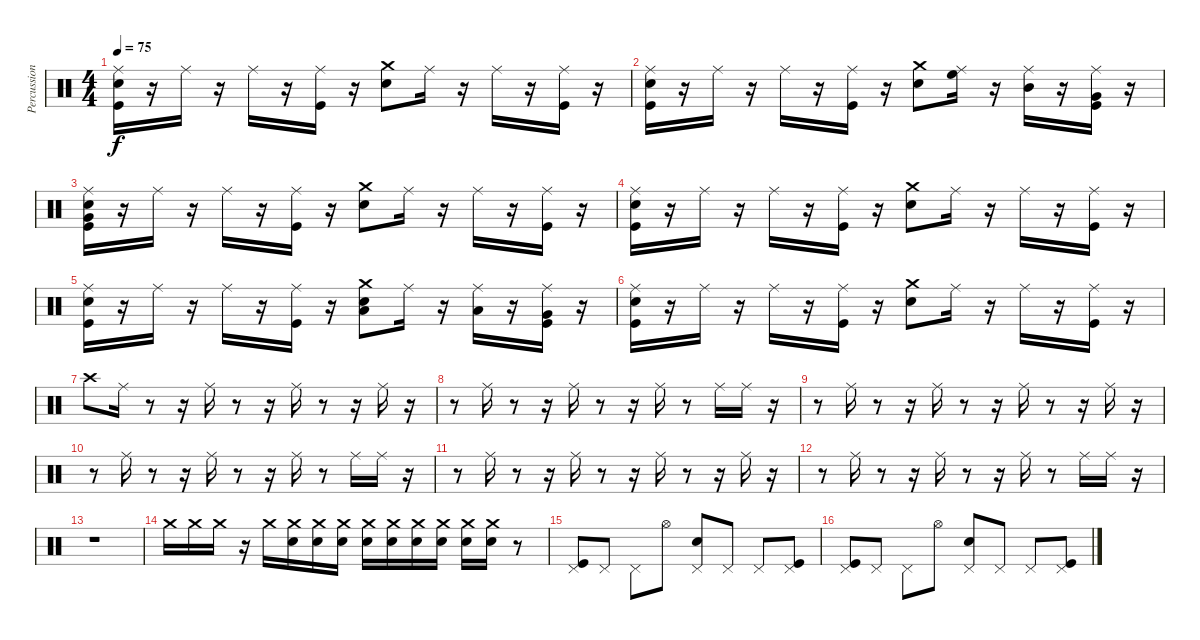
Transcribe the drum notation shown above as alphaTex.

\track ("Percussion" "Percussion") {instrument percussion}
\staff {score}
\articulation defaults
\ts (4 4)
\tempo 75
\clef neutral
\ks c
("Snare (hit) 2" "Ride (middle)" "Kick (hit)").16{dy f} r.16 "Ride (middle)".16 r.16 "Ride (middle)".16 r.16 ("Kick (hit)" "Ride (middle)").16 r.16 ("Snare (hit) 2" "Crash medium (hit)").8 "Ride (middle)".16 r.16 "Ride (middle)".16 r.16 ("Kick (hit)" "Ride (middle)").16 r.16 |
("Snare (hit) 2" "Ride (middle)" "Kick (hit)").16 r.16 "Ride (middle)".16 r.16 "Ride (middle)".16 r.16 ("Kick (hit)" "Ride (middle)").16 r.16 ("Snare (hit) 2" "Crash medium (hit)").8 ("High Floor Tom (hit)" "Ride (middle)").16 r.16 ("Mid Tom (hit)" "Ride (middle)").16 r.16 ("Very Low Tom (hit)" "Kick (hit)" "Ride (middle)").16 r.16 |
("Very Low Tom (hit)" "Snare (hit) 2" "Ride (middle)" "Kick (hit)").16 r.16 "Ride (middle)".16 r.16 "Ride (middle)".16 r.16 ("Kick (hit)" "Ride (middle)").16 r.16 ("Snare (hit) 2" "Crash medium (hit)").8 "Ride (middle)".16 r.16 "Ride (middle)".16 r.16 ("Kick (hit)" "Ride (middle)").16 r.16 |
("Snare (hit) 2" "Ride (middle)" "Kick (hit)").16 r.16 "Ride (middle)".16 r.16 "Ride (middle)".16 r.16 ("Kick (hit)" "Ride (middle)").16 r.16 ("Snare (hit) 2" "Crash medium (hit)").8 "Ride (middle)".16 r.16 "Ride (middle)".16 r.16 ("Kick (hit)" "Ride (middle)").16 r.16 |
("Snare (hit) 2" "Ride (middle)" "Kick (hit)").16 r.16 "Ride (middle)".16 r.16 "Ride (middle)".16 r.16 ("Kick (hit)" "Ride (middle)").16 r.16 ("Low Tom (hit)" "Snare (hit) 2" "Crash medium (hit)").8 "Ride (middle)".16 r.16 ("Low Tom (hit)" "Ride (middle)").16 r.16 ("Very Low Tom (hit)" "Kick (hit)" "Ride (middle)").16 r.16 |
("Snare (hit) 2" "Ride (middle)" "Kick (hit)").16 r.16 "Ride (middle)".16 r.16 "Ride (middle)".16 r.16 ("Kick (hit)" "Ride (middle)").16 r.16 ("Snare (hit) 2" "Crash medium (hit)").8 "Ride (middle)".16 r.16 "Ride (middle)".16 r.16 ("Kick (hit)" "Ride (middle)").16 r.16 |
"Crash high (hit)".8 "Ride (middle)".16 r.8 r.16 "Ride (middle)".16 r.8 r.16 "Ride (middle)".16 r.8 r.16 "Ride (middle)".16 r.16 |
r.8 "Ride (middle)".16 r.8 r.16 "Ride (middle)".16 r.8 r.16 "Ride (middle)".16 r.8 "Ride (middle)".16 "Ride (middle)".16 r.16 |
r.8 "Ride (middle)".16 r.8 r.16 "Ride (middle)".16 r.8 r.16 "Ride (middle)".16 r.8 r.16 "Ride (middle)".16 r.16 |
r.8 "Ride (middle)".16 r.8 r.16 "Ride (middle)".16 r.8 r.16 "Ride (middle)".16 r.8 "Ride (middle)".16 "Ride (middle)".16 r.16 |
r.8 "Ride (middle)".16 r.8 r.16 "Ride (middle)".16 r.8 r.16 "Ride (middle)".16 r.8 r.16 "Ride (middle)".16 r.16 |
r.8 "Ride (middle)".16 r.8 r.16 "Ride (middle)".16 r.8 r.16 "Ride (middle)".16 r.8 "Ride (middle)".16 "Ride (middle)".16 r.16 |
r.1 |
"Crash medium (hit)".16 "Crash medium (hit)".16 "Crash medium (hit)".16 r.16 "Crash medium (hit)".16 ("Snare (hit)" "Crash medium (hit)").16 ("Snare (hit)" "Crash medium (hit)").16 ("Snare (hit)" "Crash medium (hit)").16 ("Snare (hit)" "Crash medium (hit)").16 ("Snare (hit)" "Crash medium (hit)").16 ("Snare (hit)" "Crash medium (hit)").16 ("Snare (hit)" "Crash medium (hit)").16 ("Snare (hit)" "Crash medium (hit)").16 ("Snare (hit)" "Crash medium (hit)").16 r.8 |
("Pedal Hi-Hat (hit)" "Kick (hit)").8 "Pedal Hi-Hat (hit)".8 "Pedal Hi-Hat (hit)".8 "Hi-Hat (open)".8 ("Snare (hit) 2" "Pedal Hi-Hat (hit)").8 "Pedal Hi-Hat (hit)".8 "Pedal Hi-Hat (hit)".8 ("Kick (hit)" "Pedal Hi-Hat (hit)").8 |
("Pedal Hi-Hat (hit)" "Kick (hit)").8 "Pedal Hi-Hat (hit)".8 "Pedal Hi-Hat (hit)".8 "Hi-Hat (open)".8 ("Snare (hit) 2" "Pedal Hi-Hat (hit)").8 "Pedal Hi-Hat (hit)".8 "Pedal Hi-Hat (hit)".8 ("Kick (hit)" "Pedal Hi-Hat (hit)").8
